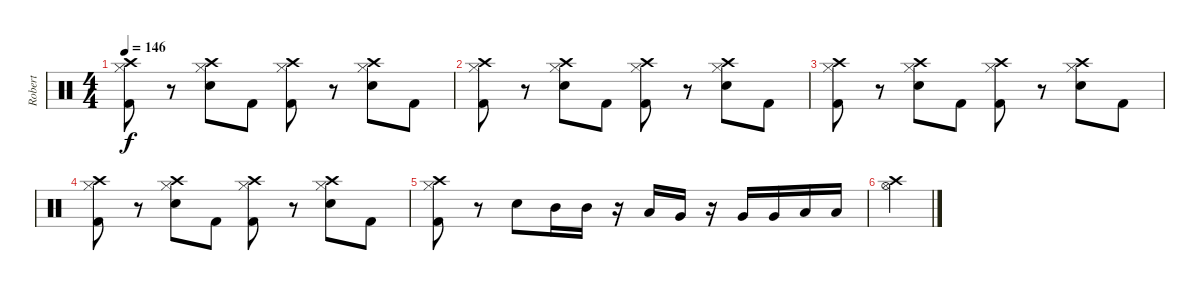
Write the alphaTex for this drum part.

\track ("Robert" "Robert") {instrument percussion}
\staff {score}
\articulation defaults
\ts (4 4)
\tempo 146
\clef neutral
\ks c
("Crash high (hit)" "Hi-Hat (closed)" "Kick (hit) 2").8{dy f} r.8 ("Crash high (hit)" "Hi-Hat (closed)" "Electric Snare (hit)").8 "Kick (hit) 2".8 ("Crash high (hit)" "Hi-Hat (closed)" "Kick (hit) 2").8 r.8 ("Crash high (hit)" "Hi-Hat (closed)" "Electric Snare (hit)").8 "Kick (hit) 2".8 |
("Crash high (hit)" "Hi-Hat (closed)" "Kick (hit) 2").8 r.8 ("Crash high (hit)" "Hi-Hat (closed)" "Electric Snare (hit)").8 "Kick (hit) 2".8 ("Crash high (hit)" "Hi-Hat (closed)" "Kick (hit) 2").8 r.8 ("Crash high (hit)" "Hi-Hat (closed)" "Electric Snare (hit)").8 "Kick (hit) 2".8 |
("Crash high (hit)" "Hi-Hat (closed)" "Kick (hit) 2").8 r.8 ("Crash high (hit)" "Hi-Hat (closed)" "Electric Snare (hit)").8 "Kick (hit) 2".8 ("Crash high (hit)" "Hi-Hat (closed)" "Kick (hit) 2").8 r.8 ("Crash high (hit)" "Hi-Hat (closed)" "Electric Snare (hit)").8 "Kick (hit) 2".8 |
("Crash high (hit)" "Hi-Hat (closed)" "Kick (hit) 2").8 r.8 ("Crash high (hit)" "Hi-Hat (closed)" "Electric Snare (hit)").8 "Kick (hit) 2".8 ("Crash high (hit)" "Hi-Hat (closed)" "Kick (hit) 2").8 r.8 ("Crash high (hit)" "Hi-Hat (closed)" "Electric Snare (hit)").8 "Kick (hit) 2".8 |
("Crash high (hit)" "Hi-Hat (closed)" "Kick (hit) 2").8 r.8 "Electric Snare (hit)".8 "Mid Tom (hit)".16 "Mid Tom (hit)".16 r.16 "Low Tom (hit)".16 "Very Low Tom (hit)".16 r.16 "Very Low Tom (hit)".16 "Very Low Tom (hit)".16 "Low Floor Tom (hit)".16 "Low Floor Tom (hit)".16 |
("Crash high (hit)" "Hi-Hat (open)").4
